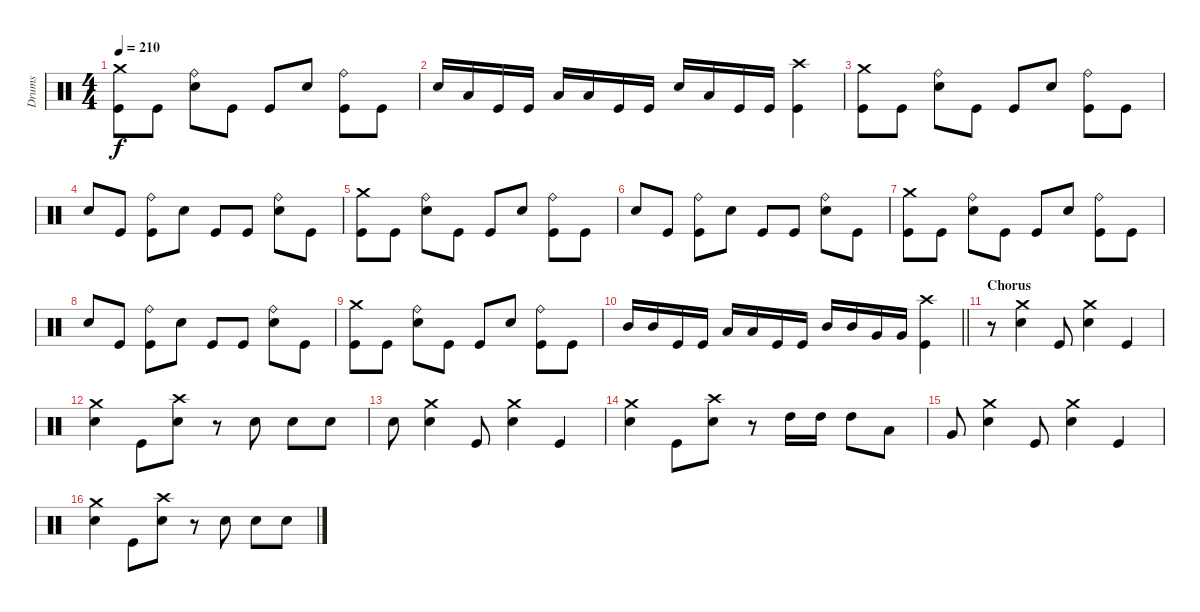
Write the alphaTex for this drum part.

\track ("Drums" "Drums") {instrument percussion}
\staff {score}
\articulation defaults
\ts (4 4)
\tempo 210
\clef neutral
\ks c
("Crash medium (hit)" "Kick (hit)").8{dy f} "Kick (hit)".8 ("Ride (bell)" "Snare (hit) 2").8 "Kick (hit)".8 "Kick (hit)".8 "Snare (hit) 2".8 ("Ride (bell)" "Kick (hit)").8 "Kick (hit)".8 |
"Snare (hit) 2".16 "Low Floor Tom (hit)".16 "Kick (hit)".16 "Kick (hit)".16 "Low Tom (hit)".16 "Low Floor Tom (hit)".16 "Kick (hit)".16 "Kick (hit)".16 "Snare (hit) 2".16 "Low Floor Tom (hit)".16 "Kick (hit)".16 "Kick (hit)".16 ("Crash high (hit)" "Kick (hit)").4 |
("Crash medium (hit)" "Kick (hit)").8 "Kick (hit)".8 ("Ride (bell)" "Snare (hit) 2").8 "Kick (hit)".8 "Kick (hit)".8 "Snare (hit) 2".8 ("Ride (bell)" "Kick (hit)").8 "Kick (hit)".8 |
"Snare (hit) 2".8 "Kick (hit)".8 ("Ride (bell)" "Kick (hit)").8 "Snare (hit) 2".8 "Kick (hit)".8 "Kick (hit)".8 ("Ride (bell)" "Snare (hit) 2").8 "Kick (hit)".8 |
("Crash medium (hit)" "Kick (hit)").8 "Kick (hit)".8 ("Ride (bell)" "Snare (hit) 2").8 "Kick (hit)".8 "Kick (hit)".8 "Snare (hit) 2".8 ("Ride (bell)" "Kick (hit)").8 "Kick (hit)".8 |
"Snare (hit) 2".8 "Kick (hit)".8 ("Ride (bell)" "Kick (hit)").8 "Snare (hit) 2".8 "Kick (hit)".8 "Kick (hit)".8 ("Ride (bell)" "Snare (hit) 2").8 "Kick (hit)".8 |
("Crash medium (hit)" "Kick (hit)").8 "Kick (hit)".8 ("Ride (bell)" "Snare (hit) 2").8 "Kick (hit)".8 "Kick (hit)".8 "Snare (hit) 2".8 ("Ride (bell)" "Kick (hit)").8 "Kick (hit)".8 |
"Snare (hit) 2".8 "Kick (hit)".8 ("Ride (bell)" "Kick (hit)").8 "Snare (hit) 2".8 "Kick (hit)".8 "Kick (hit)".8 ("Ride (bell)" "Snare (hit) 2").8 "Kick (hit)".8 |
("Crash medium (hit)" "Kick (hit)").8 "Kick (hit)".8 ("Ride (bell)" "Snare (hit) 2").8 "Kick (hit)".8 "Kick (hit)".8 "Snare (hit) 2".8 ("Ride (bell)" "Kick (hit)").8 "Kick (hit)".8 |
\barLineRight lightlight "Mid Tom (hit)".16 "Mid Tom (hit)".16 "Kick (hit)".16 "Kick (hit)".16 "Low Tom (hit)".16 "Low Tom (hit)".16 "Kick (hit)".16 "Kick (hit)".16 "Mid Tom (hit)".16 "Mid Tom (hit)".16 "Very Low Tom (hit)".16 "Very Low Tom (hit)".16
("Crash high (hit)" "Kick (hit)").4 |
\section ("" "Chorus")
r.8 ("Crash medium (hit)" "Snare (hit) 2").4 "Kick (hit)".8 ("Crash medium (hit)" "Snare (hit) 2").4 "Kick (hit)".4 |
("Crash medium (hit)" "Snare (hit) 2").4 "Kick (hit)".8 ("Crash high (hit)" "Snare (hit) 2").8 r.8 "Snare (hit) 2".8 "Snare (hit) 2".8 "Snare (hit) 2".8 |
"Snare (hit) 2".8 ("Crash medium (hit)" "Snare (hit) 2").4 "Kick (hit)".8 ("Crash medium (hit)" "Snare (hit) 2").4 "Kick (hit)".4 |
("Crash medium (hit)" "Snare (hit) 2").4 "Kick (hit)".8 ("Crash high (hit)" "Snare (hit) 2").8 r.8 "High Tom (hit)".16 "High Tom (hit)".16 "High Tom (hit)".8 "Low Tom (hit)".8 |
"Very Low Tom (hit)".8 ("Crash medium (hit)" "Snare (hit) 2").4 "Kick (hit)".8 ("Crash medium (hit)" "Snare (hit) 2").4 "Kick (hit)".4 |
("Crash medium (hit)" "Snare (hit) 2").4 "Kick (hit)".8 ("Crash high (hit)" "Snare (hit) 2").8 r.8 "Snare (hit) 2".8 "Snare (hit) 2".8 "Snare (hit) 2".8
